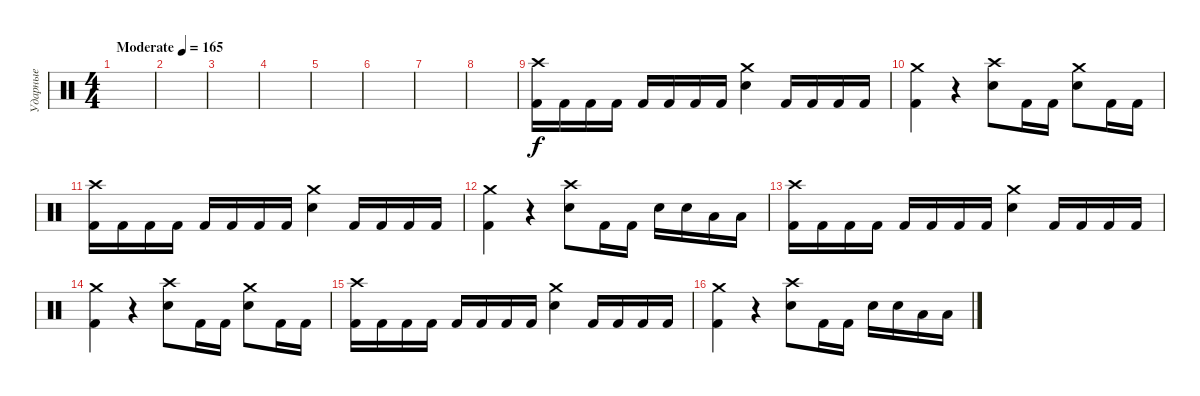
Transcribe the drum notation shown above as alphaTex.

\track ("Ударные" "Ударные") {instrument percussion}
\staff {score}
\articulation defaults
\ts (4 4)
\tempo (165 "Moderate")
\clef neutral
\ks c
|
|
|
|
|
|
|
|
("Kick (hit) 2" "Crash high (hit)").16 "Kick (hit) 2".16 "Kick (hit) 2".16 "Kick (hit) 2".16 "Kick (hit) 2".16 "Kick (hit) 2".16 "Kick (hit) 2".16 "Kick (hit) 2".16 ("Snare (hit) 2" "Crash medium (hit)").4 "Kick (hit) 2".16 "Kick (hit) 2".16 "Kick (hit) 2".16 "Kick (hit) 2".16 |
("Kick (hit) 2" "Crash medium (hit)").4 r.4 ("Snare (hit) 2" "Crash high (hit)").8 "Kick (hit) 2".16 "Kick (hit) 2".16 ("Snare (hit) 2" "Crash medium (hit)").8 "Kick (hit) 2".16 "Kick (hit) 2".16 |
("Kick (hit) 2" "Crash high (hit)").16 "Kick (hit) 2".16 "Kick (hit) 2".16 "Kick (hit) 2".16 "Kick (hit) 2".16 "Kick (hit) 2".16 "Kick (hit) 2".16 "Kick (hit) 2".16 ("Snare (hit) 2" "Crash medium (hit)").4 "Kick (hit) 2".16 "Kick (hit) 2".16 "Kick (hit) 2".16 "Kick (hit) 2".16 |
("Kick (hit) 2" "Crash medium (hit)").4 r.4 ("Snare (hit) 2" "Crash high (hit)").8 "Kick (hit) 2".16 "Kick (hit) 2".16 "Snare (hit) 2".16 "Snare (hit) 2".16 "Low Tom (hit)".16 "Low Tom (hit)".16 |
("Kick (hit) 2" "Crash high (hit)").16 "Kick (hit) 2".16 "Kick (hit) 2".16 "Kick (hit) 2".16 "Kick (hit) 2".16 "Kick (hit) 2".16 "Kick (hit) 2".16 "Kick (hit) 2".16 ("Snare (hit) 2" "Crash medium (hit)").4 "Kick (hit) 2".16 "Kick (hit) 2".16 "Kick (hit) 2".16 "Kick (hit) 2".16 |
("Kick (hit) 2" "Crash medium (hit)").4 r.4 ("Snare (hit) 2" "Crash high (hit)").8 "Kick (hit) 2".16 "Kick (hit) 2".16 ("Snare (hit) 2" "Crash medium (hit)").8 "Kick (hit) 2".16 "Kick (hit) 2".16 |
("Kick (hit) 2" "Crash high (hit)").16 "Kick (hit) 2".16 "Kick (hit) 2".16 "Kick (hit) 2".16 "Kick (hit) 2".16 "Kick (hit) 2".16 "Kick (hit) 2".16 "Kick (hit) 2".16 ("Snare (hit) 2" "Crash medium (hit)").4 "Kick (hit) 2".16 "Kick (hit) 2".16 "Kick (hit) 2".16 "Kick (hit) 2".16 |
("Kick (hit) 2" "Crash medium (hit)").4 r.4 ("Snare (hit) 2" "Crash high (hit)").8 "Kick (hit) 2".16 "Kick (hit) 2".16 "Snare (hit) 2".16 "Snare (hit) 2".16 "Low Tom (hit)".16 "Low Tom (hit)".16
